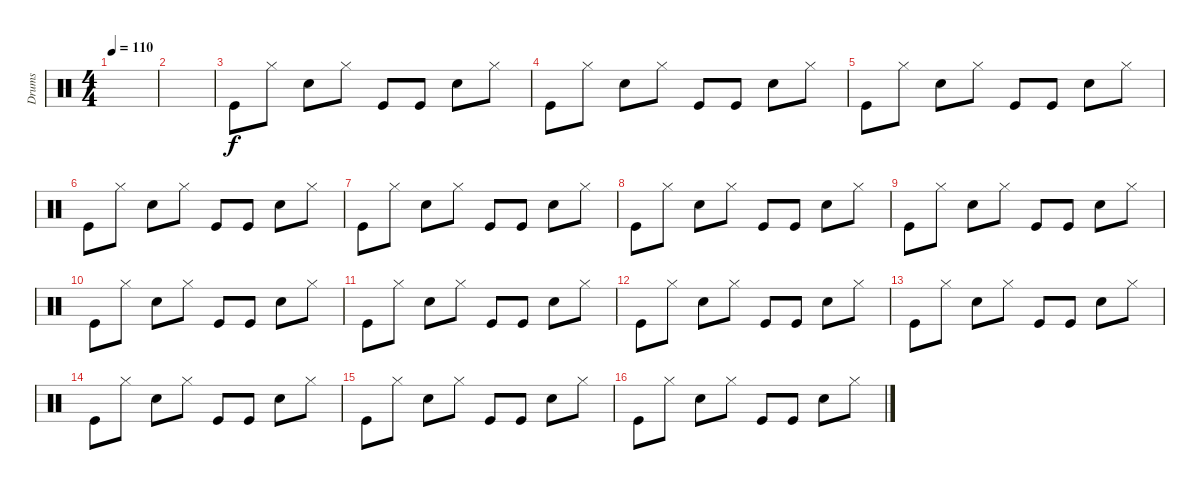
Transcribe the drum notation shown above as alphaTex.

\track ("Drums" "Drums") {instrument percussion}
\staff {score}
\articulation defaults
\ts (4 4)
\tempo 110
\clef neutral
\ks c
|
|
"Kick (hit)".8 "Hi-Hat (closed)".8 "Electric Snare (hit)".8 "Hi-Hat (closed)".8 "Kick (hit)".8 "Kick (hit)".8 "Electric Snare (hit)".8 "Hi-Hat (closed)".8 |
"Kick (hit)".8 "Hi-Hat (closed)".8 "Electric Snare (hit)".8 "Hi-Hat (closed)".8 "Kick (hit)".8 "Kick (hit)".8 "Electric Snare (hit)".8 "Hi-Hat (closed)".8 |
"Kick (hit)".8 "Hi-Hat (closed)".8 "Electric Snare (hit)".8 "Hi-Hat (closed)".8 "Kick (hit)".8 "Kick (hit)".8 "Electric Snare (hit)".8 "Hi-Hat (closed)".8 |
"Kick (hit)".8 "Hi-Hat (closed)".8 "Electric Snare (hit)".8 "Hi-Hat (closed)".8 "Kick (hit)".8 "Kick (hit)".8 "Electric Snare (hit)".8 "Hi-Hat (closed)".8 |
"Kick (hit)".8 "Hi-Hat (closed)".8 "Electric Snare (hit)".8 "Hi-Hat (closed)".8 "Kick (hit)".8 "Kick (hit)".8 "Electric Snare (hit)".8 "Hi-Hat (closed)".8 |
"Kick (hit)".8 "Hi-Hat (closed)".8 "Electric Snare (hit)".8 "Hi-Hat (closed)".8 "Kick (hit)".8 "Kick (hit)".8 "Electric Snare (hit)".8 "Hi-Hat (closed)".8 |
"Kick (hit)".8 "Hi-Hat (closed)".8 "Electric Snare (hit)".8 "Hi-Hat (closed)".8 "Kick (hit)".8 "Kick (hit)".8 "Electric Snare (hit)".8 "Hi-Hat (closed)".8 |
"Kick (hit)".8 "Hi-Hat (closed)".8 "Electric Snare (hit)".8 "Hi-Hat (closed)".8 "Kick (hit)".8 "Kick (hit)".8 "Electric Snare (hit)".8 "Hi-Hat (closed)".8 |
"Kick (hit)".8 "Hi-Hat (closed)".8 "Electric Snare (hit)".8 "Hi-Hat (closed)".8 "Kick (hit)".8 "Kick (hit)".8 "Electric Snare (hit)".8 "Hi-Hat (closed)".8 |
"Kick (hit)".8 "Hi-Hat (closed)".8 "Electric Snare (hit)".8 "Hi-Hat (closed)".8 "Kick (hit)".8 "Kick (hit)".8 "Electric Snare (hit)".8 "Hi-Hat (closed)".8 |
"Kick (hit)".8 "Hi-Hat (closed)".8 "Electric Snare (hit)".8 "Hi-Hat (closed)".8 "Kick (hit)".8 "Kick (hit)".8 "Electric Snare (hit)".8 "Hi-Hat (closed)".8 |
"Kick (hit)".8 "Hi-Hat (closed)".8 "Electric Snare (hit)".8 "Hi-Hat (closed)".8 "Kick (hit)".8 "Kick (hit)".8 "Electric Snare (hit)".8 "Hi-Hat (closed)".8 |
"Kick (hit)".8 "Hi-Hat (closed)".8 "Electric Snare (hit)".8 "Hi-Hat (closed)".8 "Kick (hit)".8 "Kick (hit)".8 "Electric Snare (hit)".8 "Hi-Hat (closed)".8 |
"Kick (hit)".8 "Hi-Hat (closed)".8 "Electric Snare (hit)".8 "Hi-Hat (closed)".8 "Kick (hit)".8 "Kick (hit)".8 "Electric Snare (hit)".8 "Hi-Hat (closed)".8
